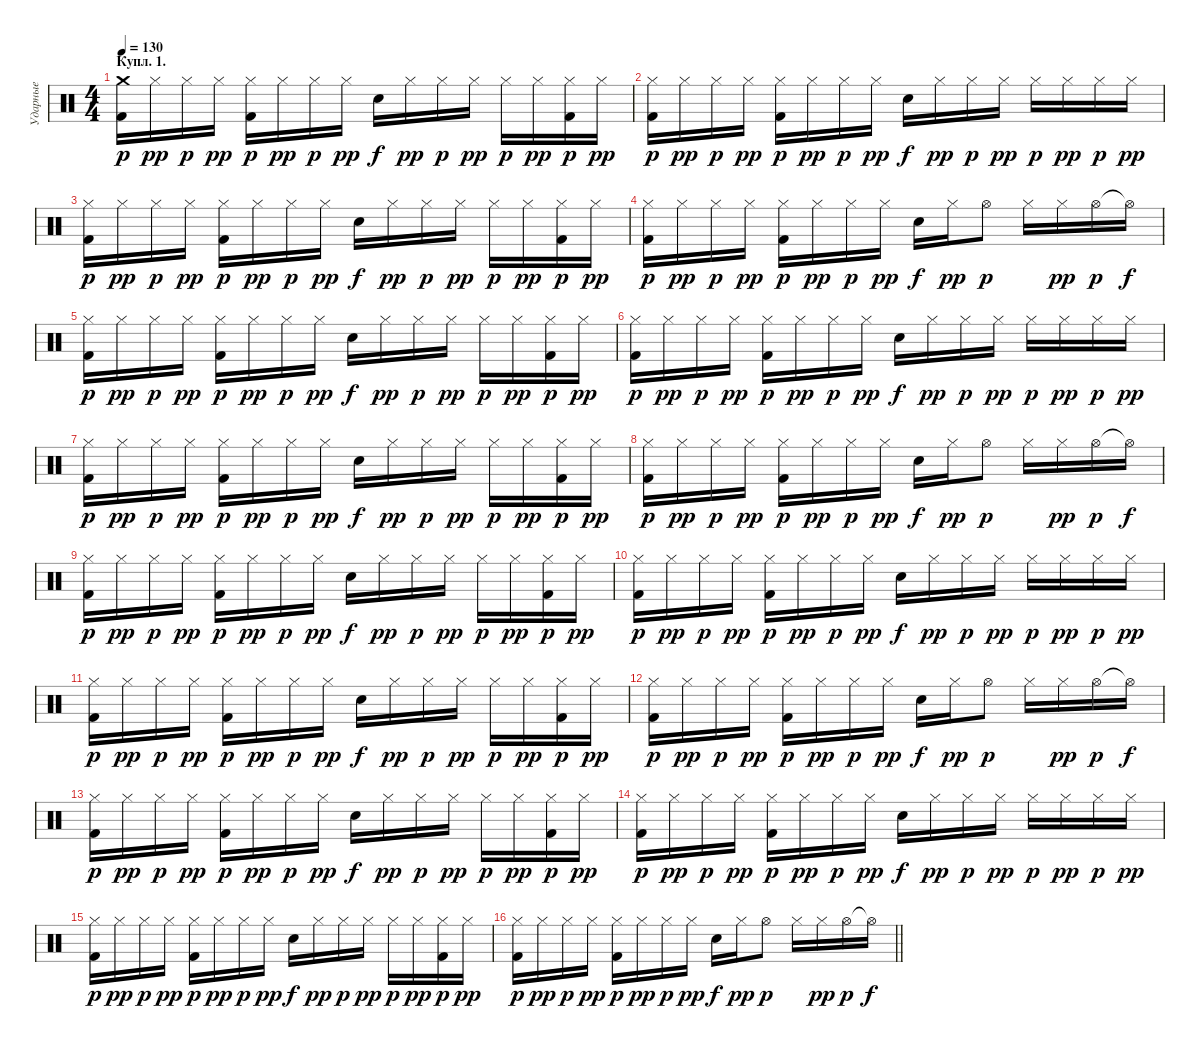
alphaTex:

\track ("Ударные" "Ударные") {instrument percussion}
\staff {score}
\articulation defaults
\ts (4 4)
\section ("" "Купл. 1.")
\tempo 130
\clef neutral
\ks c
("Crash medium (hit)" "Kick (hit) 2").16{dy p} "Hi-Hat (closed)".16{dy pp} "Hi-Hat (closed)".16{dy p} "Hi-Hat (closed)".16{dy pp} ("Hi-Hat (closed)" "Kick (hit) 2").16{dy p} "Hi-Hat (closed)".16{dy pp} "Hi-Hat (closed)".16{dy p} "Hi-Hat (closed)".16{dy pp} "Snare (hit) 2".16{dy f} "Hi-Hat (closed)".16{dy pp} "Hi-Hat (closed)".16{dy p} "Hi-Hat (closed)".16{dy pp} "Hi-Hat (closed)".16{dy p} "Hi-Hat (closed)".16{dy pp} ("Hi-Hat (closed)" "Kick (hit) 2").16{dy p} "Hi-Hat (closed)".16{dy pp} |
("Hi-Hat (closed)" "Kick (hit) 2").16{dy p} "Hi-Hat (closed)".16{dy pp} "Hi-Hat (closed)".16{dy p} "Hi-Hat (closed)".16{dy pp} ("Hi-Hat (closed)" "Kick (hit) 2").16{dy p} "Hi-Hat (closed)".16{dy pp} "Hi-Hat (closed)".16{dy p} "Hi-Hat (closed)".16{dy pp} "Snare (hit) 2".16{dy f} "Hi-Hat (closed)".16{dy pp} "Hi-Hat (closed)".16{dy p} "Hi-Hat (closed)".16{dy pp} "Hi-Hat (closed)".16{dy p} "Hi-Hat (closed)".16{dy pp} "Hi-Hat (closed)".16{dy p} "Hi-Hat (closed)".16{dy pp} |
("Hi-Hat (closed)" "Kick (hit) 2").16{dy p} "Hi-Hat (closed)".16{dy pp} "Hi-Hat (closed)".16{dy p} "Hi-Hat (closed)".16{dy pp} ("Hi-Hat (closed)" "Kick (hit) 2").16{dy p} "Hi-Hat (closed)".16{dy pp} "Hi-Hat (closed)".16{dy p} "Hi-Hat (closed)".16{dy pp} "Snare (hit) 2".16{dy f} "Hi-Hat (closed)".16{dy pp} "Hi-Hat (closed)".16{dy p} "Hi-Hat (closed)".16{dy pp} "Hi-Hat (closed)".16{dy p} "Hi-Hat (closed)".16{dy pp} ("Hi-Hat (closed)" "Kick (hit) 2").16{dy p} "Hi-Hat (closed)".16{dy pp} |
("Hi-Hat (closed)" "Kick (hit) 2").16{dy p} "Hi-Hat (closed)".16{dy pp} "Hi-Hat (closed)".16{dy p} "Hi-Hat (closed)".16{dy pp} ("Hi-Hat (closed)" "Kick (hit) 2").16{dy p} "Hi-Hat (closed)".16{dy pp} "Hi-Hat (closed)".16{dy p} "Hi-Hat (closed)".16{dy pp} "Snare (hit) 2".16{dy f} "Hi-Hat (closed)".16{dy pp} "Hi-Hat (open)".8{dy p} "Hi-Hat (closed)".16 "Hi-Hat (closed)".16{dy pp} "Hi-Hat (open)".16{dy p} "Hi-Hat (open)"{t}.16{dy f} |
("Hi-Hat (closed)" "Kick (hit) 2").16{dy p} "Hi-Hat (closed)".16{dy pp} "Hi-Hat (closed)".16{dy p} "Hi-Hat (closed)".16{dy pp} ("Hi-Hat (closed)" "Kick (hit) 2").16{dy p} "Hi-Hat (closed)".16{dy pp} "Hi-Hat (closed)".16{dy p} "Hi-Hat (closed)".16{dy pp} "Snare (hit) 2".16{dy f} "Hi-Hat (closed)".16{dy pp} "Hi-Hat (closed)".16{dy p} "Hi-Hat (closed)".16{dy pp} "Hi-Hat (closed)".16{dy p} "Hi-Hat (closed)".16{dy pp} ("Hi-Hat (closed)" "Kick (hit) 2").16{dy p} "Hi-Hat (closed)".16{dy pp} |
("Hi-Hat (closed)" "Kick (hit) 2").16{dy p} "Hi-Hat (closed)".16{dy pp} "Hi-Hat (closed)".16{dy p} "Hi-Hat (closed)".16{dy pp} ("Hi-Hat (closed)" "Kick (hit) 2").16{dy p} "Hi-Hat (closed)".16{dy pp} "Hi-Hat (closed)".16{dy p} "Hi-Hat (closed)".16{dy pp} "Snare (hit) 2".16{dy f} "Hi-Hat (closed)".16{dy pp} "Hi-Hat (closed)".16{dy p} "Hi-Hat (closed)".16{dy pp} "Hi-Hat (closed)".16{dy p} "Hi-Hat (closed)".16{dy pp} "Hi-Hat (closed)".16{dy p} "Hi-Hat (closed)".16{dy pp} |
("Hi-Hat (closed)" "Kick (hit) 2").16{dy p} "Hi-Hat (closed)".16{dy pp} "Hi-Hat (closed)".16{dy p} "Hi-Hat (closed)".16{dy pp} ("Hi-Hat (closed)" "Kick (hit) 2").16{dy p} "Hi-Hat (closed)".16{dy pp} "Hi-Hat (closed)".16{dy p} "Hi-Hat (closed)".16{dy pp} "Snare (hit) 2".16{dy f} "Hi-Hat (closed)".16{dy pp} "Hi-Hat (closed)".16{dy p} "Hi-Hat (closed)".16{dy pp} "Hi-Hat (closed)".16{dy p} "Hi-Hat (closed)".16{dy pp} ("Hi-Hat (closed)" "Kick (hit) 2").16{dy p} "Hi-Hat (closed)".16{dy pp} |
("Hi-Hat (closed)" "Kick (hit) 2").16{dy p} "Hi-Hat (closed)".16{dy pp} "Hi-Hat (closed)".16{dy p} "Hi-Hat (closed)".16{dy pp} ("Hi-Hat (closed)" "Kick (hit) 2").16{dy p} "Hi-Hat (closed)".16{dy pp} "Hi-Hat (closed)".16{dy p} "Hi-Hat (closed)".16{dy pp} "Snare (hit) 2".16{dy f} "Hi-Hat (closed)".16{dy pp} "Hi-Hat (open)".8{dy p} "Hi-Hat (closed)".16 "Hi-Hat (closed)".16{dy pp} "Hi-Hat (open)".16{dy p} "Hi-Hat (open)"{t}.16{dy f} |
("Hi-Hat (closed)" "Kick (hit) 2").16{dy p} "Hi-Hat (closed)".16{dy pp} "Hi-Hat (closed)".16{dy p} "Hi-Hat (closed)".16{dy pp} ("Hi-Hat (closed)" "Kick (hit) 2").16{dy p} "Hi-Hat (closed)".16{dy pp} "Hi-Hat (closed)".16{dy p} "Hi-Hat (closed)".16{dy pp} "Snare (hit) 2".16{dy f} "Hi-Hat (closed)".16{dy pp} "Hi-Hat (closed)".16{dy p} "Hi-Hat (closed)".16{dy pp} "Hi-Hat (closed)".16{dy p} "Hi-Hat (closed)".16{dy pp} ("Hi-Hat (closed)" "Kick (hit) 2").16{dy p} "Hi-Hat (closed)".16{dy pp} |
("Hi-Hat (closed)" "Kick (hit) 2").16{dy p} "Hi-Hat (closed)".16{dy pp} "Hi-Hat (closed)".16{dy p} "Hi-Hat (closed)".16{dy pp} ("Hi-Hat (closed)" "Kick (hit) 2").16{dy p} "Hi-Hat (closed)".16{dy pp} "Hi-Hat (closed)".16{dy p} "Hi-Hat (closed)".16{dy pp} "Snare (hit) 2".16{dy f} "Hi-Hat (closed)".16{dy pp} "Hi-Hat (closed)".16{dy p} "Hi-Hat (closed)".16{dy pp} "Hi-Hat (closed)".16{dy p} "Hi-Hat (closed)".16{dy pp} "Hi-Hat (closed)".16{dy p} "Hi-Hat (closed)".16{dy pp} |
("Hi-Hat (closed)" "Kick (hit) 2").16{dy p} "Hi-Hat (closed)".16{dy pp} "Hi-Hat (closed)".16{dy p} "Hi-Hat (closed)".16{dy pp} ("Hi-Hat (closed)" "Kick (hit) 2").16{dy p} "Hi-Hat (closed)".16{dy pp} "Hi-Hat (closed)".16{dy p} "Hi-Hat (closed)".16{dy pp} "Snare (hit) 2".16{dy f} "Hi-Hat (closed)".16{dy pp} "Hi-Hat (closed)".16{dy p} "Hi-Hat (closed)".16{dy pp} "Hi-Hat (closed)".16{dy p} "Hi-Hat (closed)".16{dy pp} ("Hi-Hat (closed)" "Kick (hit) 2").16{dy p} "Hi-Hat (closed)".16{dy pp} |
("Hi-Hat (closed)" "Kick (hit) 2").16{dy p} "Hi-Hat (closed)".16{dy pp} "Hi-Hat (closed)".16{dy p} "Hi-Hat (closed)".16{dy pp} ("Hi-Hat (closed)" "Kick (hit) 2").16{dy p} "Hi-Hat (closed)".16{dy pp} "Hi-Hat (closed)".16{dy p} "Hi-Hat (closed)".16{dy pp} "Snare (hit) 2".16{dy f} "Hi-Hat (closed)".16{dy pp} "Hi-Hat (open)".8{dy p} "Hi-Hat (closed)".16 "Hi-Hat (closed)".16{dy pp} "Hi-Hat (open)".16{dy p} "Hi-Hat (open)"{t}.16{dy f} |
("Hi-Hat (closed)" "Kick (hit) 2").16{dy p} "Hi-Hat (closed)".16{dy pp} "Hi-Hat (closed)".16{dy p} "Hi-Hat (closed)".16{dy pp} ("Hi-Hat (closed)" "Kick (hit) 2").16{dy p} "Hi-Hat (closed)".16{dy pp} "Hi-Hat (closed)".16{dy p} "Hi-Hat (closed)".16{dy pp} "Snare (hit) 2".16{dy f} "Hi-Hat (closed)".16{dy pp} "Hi-Hat (closed)".16{dy p} "Hi-Hat (closed)".16{dy pp} "Hi-Hat (closed)".16{dy p} "Hi-Hat (closed)".16{dy pp} ("Hi-Hat (closed)" "Kick (hit) 2").16{dy p} "Hi-Hat (closed)".16{dy pp} |
("Hi-Hat (closed)" "Kick (hit) 2").16{dy p} "Hi-Hat (closed)".16{dy pp} "Hi-Hat (closed)".16{dy p} "Hi-Hat (closed)".16{dy pp} ("Hi-Hat (closed)" "Kick (hit) 2").16{dy p} "Hi-Hat (closed)".16{dy pp} "Hi-Hat (closed)".16{dy p} "Hi-Hat (closed)".16{dy pp} "Snare (hit) 2".16{dy f} "Hi-Hat (closed)".16{dy pp} "Hi-Hat (closed)".16{dy p} "Hi-Hat (closed)".16{dy pp} "Hi-Hat (closed)".16{dy p} "Hi-Hat (closed)".16{dy pp} "Hi-Hat (closed)".16{dy p} "Hi-Hat (closed)".16{dy pp} |
("Hi-Hat (closed)" "Kick (hit) 2").16{dy p} "Hi-Hat (closed)".16{dy pp} "Hi-Hat (closed)".16{dy p} "Hi-Hat (closed)".16{dy pp} ("Hi-Hat (closed)" "Kick (hit) 2").16{dy p} "Hi-Hat (closed)".16{dy pp} "Hi-Hat (closed)".16{dy p} "Hi-Hat (closed)".16{dy pp} "Snare (hit) 2".16{dy f} "Hi-Hat (closed)".16{dy pp} "Hi-Hat (closed)".16{dy p} "Hi-Hat (closed)".16{dy pp} "Hi-Hat (closed)".16{dy p} "Hi-Hat (closed)".16{dy pp} ("Hi-Hat (closed)" "Kick (hit) 2").16{dy p} "Hi-Hat (closed)".16{dy pp} |
\barLineRight lightlight
("Hi-Hat (closed)" "Kick (hit) 2").16{dy p} "Hi-Hat (closed)".16{dy pp} "Hi-Hat (closed)".16{dy p} "Hi-Hat (closed)".16{dy pp} ("Hi-Hat (closed)" "Kick (hit) 2").16{dy p} "Hi-Hat (closed)".16{dy pp} "Hi-Hat (closed)".16{dy p} "Hi-Hat (closed)".16{dy pp} "Snare (hit) 2".16{dy f} "Hi-Hat (closed)".16{dy pp} "Hi-Hat (open)".8{dy p} "Hi-Hat (closed)".16 "Hi-Hat (closed)".16{dy pp} "Hi-Hat (open)".16{dy p} "Hi-Hat (open)"{t}.16{dy f}
